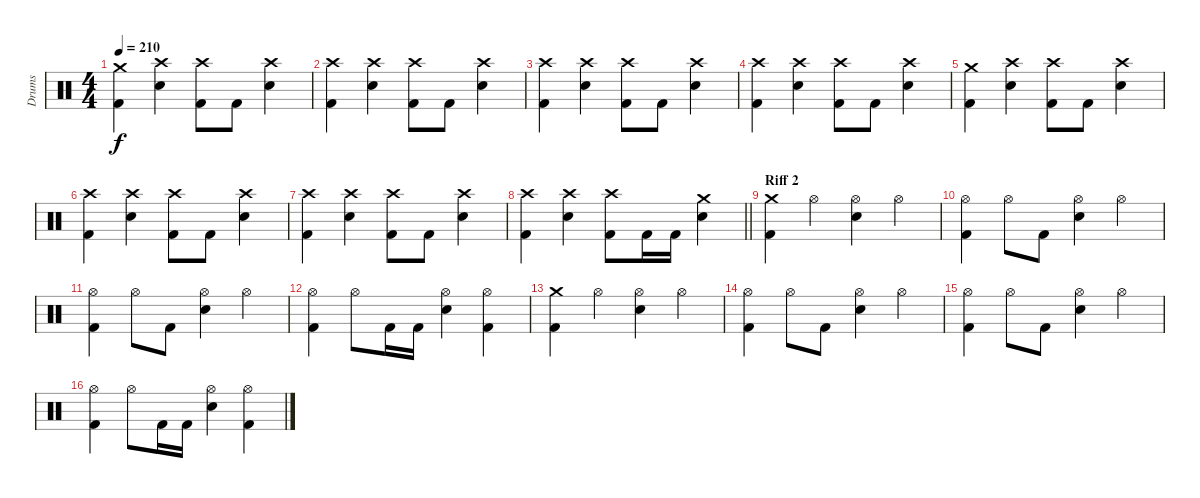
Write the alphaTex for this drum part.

\track ("Drums" "Drums") {instrument percussion}
\staff {score}
\articulation defaults
\ts (4 4)
\tempo 210
\clef neutral
\ks c
("Crash medium (hit)" "Kick (hit) 2").4{dy f} ("Crash high (hit)" "Electric Snare (hit)").4 ("Kick (hit) 2" "Crash high (hit)").8 "Kick (hit) 2".8 ("Crash high (hit)" "Electric Snare (hit)").4 |
("Crash high (hit)" "Kick (hit) 2").4 ("Crash high (hit)" "Electric Snare (hit)").4 ("Kick (hit) 2" "Crash high (hit)").8 "Kick (hit) 2".8 ("Crash high (hit)" "Electric Snare (hit)").4 |
("Crash high (hit)" "Kick (hit) 2").4 ("Crash high (hit)" "Electric Snare (hit)").4 ("Kick (hit) 2" "Crash high (hit)").8 "Kick (hit) 2".8 ("Crash high (hit)" "Electric Snare (hit)").4 |
("Crash high (hit)" "Kick (hit) 2").4 ("Crash high (hit)" "Electric Snare (hit)").4 ("Kick (hit) 2" "Crash high (hit)").8 "Kick (hit) 2".8 ("Crash high (hit)" "Electric Snare (hit)").4 |
("Crash medium (hit)" "Kick (hit) 2").4 ("Crash high (hit)" "Electric Snare (hit)").4 ("Kick (hit) 2" "Crash high (hit)").8 "Kick (hit) 2".8 ("Crash high (hit)" "Electric Snare (hit)").4 |
("Crash high (hit)" "Kick (hit) 2").4 ("Crash high (hit)" "Electric Snare (hit)").4 ("Kick (hit) 2" "Crash high (hit)").8 "Kick (hit) 2".8 ("Crash high (hit)" "Electric Snare (hit)").4 |
("Crash high (hit)" "Kick (hit) 2").4 ("Crash high (hit)" "Electric Snare (hit)").4 ("Kick (hit) 2" "Crash high (hit)").8 "Kick (hit) 2".8 ("Crash high (hit)" "Electric Snare (hit)").4 |
\barLineRight lightlight
("Crash high (hit)" "Kick (hit) 2").4 ("Crash high (hit)" "Electric Snare (hit)").4 ("Kick (hit) 2" "Crash high (hit)").8 "Kick (hit) 2".16 "Kick (hit) 2".16 ("Electric Snare (hit)" "Crash medium (hit)").4 |
\section ("" "Riff 2")
("Crash medium (hit)" "Kick (hit) 2").4 "Hi-Hat (open)".4 ("Hi-Hat (open)" "Electric Snare (hit)").4 "Hi-Hat (open)".4 |
("Hi-Hat (open)" "Kick (hit) 2").4 "Hi-Hat (open)".8 "Kick (hit) 2".8 ("Hi-Hat (open)" "Electric Snare (hit)").4 "Hi-Hat (open)".4 |
("Hi-Hat (open)" "Kick (hit) 2").4 "Hi-Hat (open)".8 "Kick (hit) 2".8 ("Hi-Hat (open)" "Electric Snare (hit)").4 "Hi-Hat (open)".4 |
("Hi-Hat (open)" "Kick (hit) 2").4 "Hi-Hat (open)".8 "Kick (hit) 2".16 "Kick (hit) 2".16 ("Electric Snare (hit)" "Hi-Hat (open)").4 ("Hi-Hat (open)" "Kick (hit) 2").4 |
("Crash medium (hit)" "Kick (hit) 2").4 "Hi-Hat (open)".4 ("Hi-Hat (open)" "Electric Snare (hit)").4 "Hi-Hat (open)".4 |
("Hi-Hat (open)" "Kick (hit) 2").4 "Hi-Hat (open)".8 "Kick (hit) 2".8 ("Hi-Hat (open)" "Electric Snare (hit)").4 "Hi-Hat (open)".4 |
("Hi-Hat (open)" "Kick (hit) 2").4 "Hi-Hat (open)".8 "Kick (hit) 2".8 ("Hi-Hat (open)" "Electric Snare (hit)").4 "Hi-Hat (open)".4 |
("Hi-Hat (open)" "Kick (hit) 2").4 "Hi-Hat (open)".8 "Kick (hit) 2".16 "Kick (hit) 2".16 ("Electric Snare (hit)" "Hi-Hat (open)").4 ("Hi-Hat (open)" "Kick (hit) 2").4
